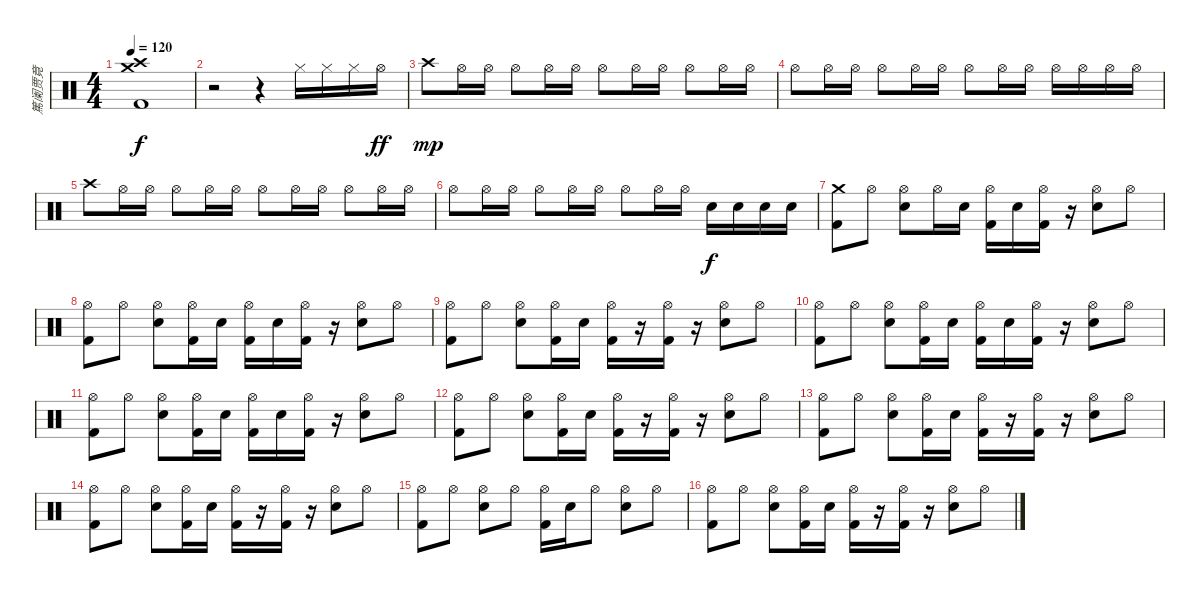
\track ("篤阑贾竟" "篤阑贾竟") {instrument percussion}
\staff {score}
\articulation defaults
\ts (4 4)
\tempo 120
\clef neutral
\ks c
("Crash high (hit)" "Crash medium (hit)" "Kick (hit) 2").1{dy f} |
r.2 r.4 "Hi-Hat (closed)".16 "Hi-Hat (closed)".16 "Hi-Hat (closed)".16 "Hi-Hat (open)".16{dy ff} |
"Crash high (hit)".8{dy mp} "Hi-Hat (open)".16 "Hi-Hat (open)".16 "Hi-Hat (open)".8 "Hi-Hat (open)".16 "Hi-Hat (open)".16 "Hi-Hat (open)".8 "Hi-Hat (open)".16 "Hi-Hat (open)".16 "Hi-Hat (open)".8 "Hi-Hat (open)".16 "Hi-Hat (open)".16 |
"Hi-Hat (open)".8 "Hi-Hat (open)".16 "Hi-Hat (open)".16 "Hi-Hat (open)".8 "Hi-Hat (open)".16 "Hi-Hat (open)".16 "Hi-Hat (open)".8 "Hi-Hat (open)".16 "Hi-Hat (open)".16 "Hi-Hat (open)".16 "Hi-Hat (open)".16 "Hi-Hat (open)".16 "Hi-Hat (open)".16 |
"Crash high (hit)".8 "Hi-Hat (open)".16 "Hi-Hat (open)".16 "Hi-Hat (open)".8 "Hi-Hat (open)".16 "Hi-Hat (open)".16 "Hi-Hat (open)".8 "Hi-Hat (open)".16 "Hi-Hat (open)".16 "Hi-Hat (open)".8 "Hi-Hat (open)".16 "Hi-Hat (open)".16 |
"Hi-Hat (open)".8 "Hi-Hat (open)".16 "Hi-Hat (open)".16 "Hi-Hat (open)".8 "Hi-Hat (open)".16 "Hi-Hat (open)".16 "Hi-Hat (open)".8 "Hi-Hat (open)".16 "Hi-Hat (open)".16 "Electric Snare (hit)".16{dy f} "Electric Snare (hit)".16 "Electric Snare (hit)".16 "Electric Snare (hit)".16 |
("Crash medium (hit)" "Kick (hit) 2").8 "Hi-Hat (open)".8 ("Hi-Hat (open)" "Electric Snare (hit)").8 "Hi-Hat (open)".16 "Electric Snare (hit)".16 ("Hi-Hat (open)" "Kick (hit) 2").16 "Electric Snare (hit)".16 ("Hi-Hat (open)" "Kick (hit) 2").16 r.16 ("Hi-Hat (open)" "Electric Snare (hit)").8 "Hi-Hat (open)".8 |
("Hi-Hat (open)" "Kick (hit) 2").8 "Hi-Hat (open)".8 ("Hi-Hat (open)" "Electric Snare (hit)").8 ("Hi-Hat (open)" "Kick (hit) 2").16 "Electric Snare (hit)".16 ("Hi-Hat (open)" "Kick (hit) 2").16 "Electric Snare (hit)".16 ("Hi-Hat (open)" "Kick (hit) 2").16 r.16 ("Hi-Hat (open)" "Electric Snare (hit)").8 "Hi-Hat (open)".8 |
("Hi-Hat (open)" "Kick (hit) 2").8 "Hi-Hat (open)".8 ("Hi-Hat (open)" "Electric Snare (hit)").8 ("Hi-Hat (open)" "Kick (hit) 2").16 "Electric Snare (hit)".16 ("Hi-Hat (open)" "Kick (hit) 2").16 r.16 ("Hi-Hat (open)" "Kick (hit) 2").16 r.16 ("Hi-Hat (open)" "Electric Snare (hit)").8 "Hi-Hat (open)".8 |
("Hi-Hat (open)" "Kick (hit) 2").8 "Hi-Hat (open)".8 ("Hi-Hat (open)" "Electric Snare (hit)").8 ("Hi-Hat (open)" "Kick (hit) 2").16 "Electric Snare (hit)".16 ("Hi-Hat (open)" "Kick (hit) 2").16 "Electric Snare (hit)".16 ("Hi-Hat (open)" "Kick (hit) 2").16 r.16 ("Hi-Hat (open)" "Electric Snare (hit)").8 "Hi-Hat (open)".8 |
("Hi-Hat (open)" "Kick (hit) 2").8 "Hi-Hat (open)".8 ("Hi-Hat (open)" "Electric Snare (hit)").8 ("Hi-Hat (open)" "Kick (hit) 2").16 "Electric Snare (hit)".16 ("Hi-Hat (open)" "Kick (hit) 2").16 "Electric Snare (hit)".16 ("Hi-Hat (open)" "Kick (hit) 2").16 r.16 ("Hi-Hat (open)" "Electric Snare (hit)").8 "Hi-Hat (open)".8 |
("Hi-Hat (open)" "Kick (hit) 2").8 "Hi-Hat (open)".8 ("Hi-Hat (open)" "Electric Snare (hit)").8 ("Hi-Hat (open)" "Kick (hit) 2").16 "Electric Snare (hit)".16 ("Hi-Hat (open)" "Kick (hit) 2").16 r.16 ("Hi-Hat (open)" "Kick (hit) 2").16 r.16 ("Hi-Hat (open)" "Electric Snare (hit)").8 "Hi-Hat (open)".8 |
("Hi-Hat (open)" "Kick (hit) 2").8 "Hi-Hat (open)".8 ("Hi-Hat (open)" "Electric Snare (hit)").8 ("Hi-Hat (open)" "Kick (hit) 2").16 "Electric Snare (hit)".16 ("Hi-Hat (open)" "Kick (hit) 2").16 r.16 ("Hi-Hat (open)" "Kick (hit) 2").16 r.16 ("Hi-Hat (open)" "Electric Snare (hit)").8 "Hi-Hat (open)".8 |
("Hi-Hat (open)" "Kick (hit) 2").8 "Hi-Hat (open)".8 ("Hi-Hat (open)" "Electric Snare (hit)").8 ("Hi-Hat (open)" "Kick (hit) 2").16 "Electric Snare (hit)".16 ("Hi-Hat (open)" "Kick (hit) 2").16 r.16 ("Hi-Hat (open)" "Kick (hit) 2").16 r.16 ("Hi-Hat (open)" "Electric Snare (hit)").8 "Hi-Hat (open)".8 |
("Hi-Hat (open)" "Kick (hit) 2").8 "Hi-Hat (open)".8 ("Hi-Hat (open)" "Electric Snare (hit)").8 "Hi-Hat (open)".8 ("Hi-Hat (open)" "Kick (hit) 2").16 "Electric Snare (hit)".16 "Hi-Hat (open)".8 ("Hi-Hat (open)" "Electric Snare (hit)").8 "Hi-Hat (open)".8 |
("Hi-Hat (open)" "Kick (hit) 2").8 "Hi-Hat (open)".8 ("Hi-Hat (open)" "Electric Snare (hit)").8 ("Hi-Hat (open)" "Kick (hit) 2").16 "Electric Snare (hit)".16 ("Hi-Hat (open)" "Kick (hit) 2").16 r.16 ("Hi-Hat (open)" "Kick (hit) 2").16 r.16 ("Hi-Hat (open)" "Electric Snare (hit)").8 "Hi-Hat (open)".8
